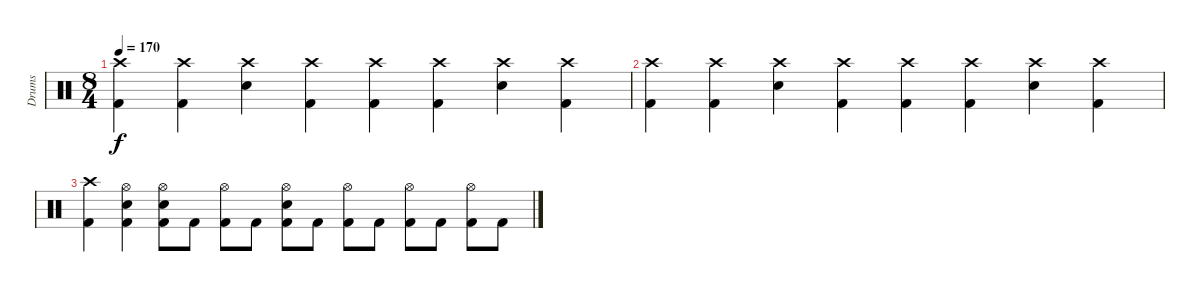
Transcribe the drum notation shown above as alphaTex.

\track ("Drums" "Drums") {instrument percussion}
\staff {score}
\articulation defaults
\ts (8 4)
\tempo 170
\clef neutral
\ks c
("Crash high (hit)" "Kick (hit) 2").4{dy f} ("Crash high (hit)" "Kick (hit) 2").4 ("Crash high (hit)" "Snare (hit) 2").4 ("Crash high (hit)" "Kick (hit) 2").4 ("Crash high (hit)" "Kick (hit) 2").4 ("Crash high (hit)" "Kick (hit) 2").4 ("Crash high (hit)" "Snare (hit) 2").4 ("Crash high (hit)" "Kick (hit) 2").4 |
("Crash high (hit)" "Kick (hit) 2").4 ("Crash high (hit)" "Kick (hit) 2").4 ("Crash high (hit)" "Snare (hit) 2").4 ("Crash high (hit)" "Kick (hit) 2").4 ("Crash high (hit)" "Kick (hit) 2").4 ("Crash high (hit)" "Kick (hit) 2").4 ("Crash high (hit)" "Snare (hit) 2").4 ("Crash high (hit)" "Kick (hit) 2").4 |
("Crash high (hit)" "Kick (hit) 2").4 ("Snare (hit) 2" "Kick (hit) 2" "Hi-Hat (open)").4 ("Snare (hit) 2" "Hi-Hat (open)" "Kick (hit) 2").8 "Kick (hit) 2".8 ("Kick (hit) 2" "Hi-Hat (open)").8 "Kick (hit) 2".8 ("Kick (hit) 2" "Snare (hit) 2" "Hi-Hat (open)").8 "Kick (hit) 2".8 ("Kick (hit) 2" "Hi-Hat (open)").8 "Kick (hit) 2".8 ("Kick (hit) 2" "Hi-Hat (open)").8 "Kick (hit) 2".8 ("Kick (hit) 2" "Hi-Hat (open)").8 "Kick (hit) 2".8
